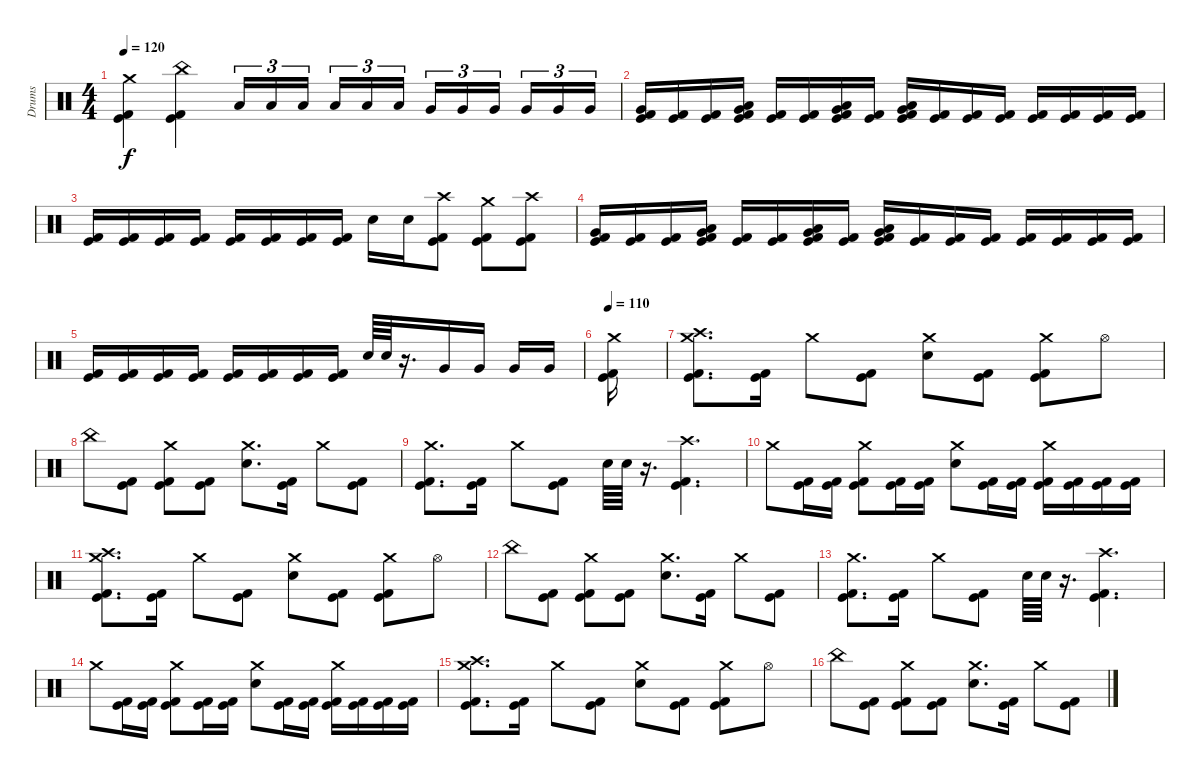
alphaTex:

\track ("Drums" "Drums") {instrument percussion}
\staff {score}
\articulation defaults
\ts (4 4)
\tempo 120
\clef neutral
\ks c
("Crash medium (hit)" "Kick (hit)" "Kick (hit) 2").4{dy f} ("China (hit)" "Kick (hit)" "Kick (hit) 2").4 "Low Tom (hit)".16{tu (3 2)} "Low Tom (hit)".16{tu (3 2)} "Low Tom (hit)".16{tu (3 2) beam splitsecondary} "Low Tom (hit)".16{tu (3 2)} "Low Tom (hit)".16{tu (3 2)} "Low Tom (hit)".16{tu (3 2)} "Very Low Tom (hit)".16{tu (3 2)} "Very Low Tom (hit)".16{tu (3 2)} "Very Low Tom (hit)".16{tu (3 2) beam splitsecondary} "Very Low Tom (hit)".16{tu (3 2)} "Very Low Tom (hit)".16{tu (3 2)} "Very Low Tom (hit)".16{tu (3 2)} |
("Very Low Tom (hit)" "Kick (hit)" "Kick (hit) 2").16 ("Kick (hit)" "Kick (hit) 2").16 ("Kick (hit)" "Kick (hit) 2").16 ("Low Tom (hit)" "Very Low Tom (hit)" "Kick (hit)" "Kick (hit) 2").16 ("Kick (hit)" "Kick (hit) 2").16 ("Kick (hit)" "Kick (hit) 2").16 ("Low Tom (hit)" "Very Low Tom (hit)" "Kick (hit)" "Kick (hit) 2").16 ("Kick (hit)" "Kick (hit) 2").16 ("Low Tom (hit)" "Very Low Tom (hit)" "Kick (hit)" "Kick (hit) 2").16 ("Kick (hit)" "Kick (hit) 2").16 ("Kick (hit)" "Kick (hit) 2").16 ("Kick (hit)" "Kick (hit) 2").16 ("Kick (hit)" "Kick (hit) 2").16 ("Kick (hit)" "Kick (hit) 2").16 ("Kick (hit)" "Kick (hit) 2").16 ("Kick (hit)" "Kick (hit) 2").16 |
("Kick (hit)" "Kick (hit) 2").16 ("Kick (hit)" "Kick (hit) 2").16 ("Kick (hit)" "Kick (hit) 2").16 ("Kick (hit)" "Kick (hit) 2").16 ("Kick (hit)" "Kick (hit) 2").16 ("Kick (hit)" "Kick (hit) 2").16 ("Kick (hit)" "Kick (hit) 2").16 ("Kick (hit)" "Kick (hit) 2").16 "Electric Snare (hit)".16 "Electric Snare (hit)".16 ("Crash high (hit)" "Kick (hit)" "Kick (hit) 2").8 ("Crash medium (hit)" "Kick (hit)" "Kick (hit) 2").8 ("Crash high (hit)" "Kick (hit)" "Kick (hit) 2").8 |
("Very Low Tom (hit)" "Kick (hit)" "Kick (hit) 2").16 ("Kick (hit)" "Kick (hit) 2").16 ("Kick (hit)" "Kick (hit) 2").16 ("Low Tom (hit)" "Very Low Tom (hit)" "Kick (hit)" "Kick (hit) 2").16 ("Kick (hit)" "Kick (hit) 2").16 ("Kick (hit)" "Kick (hit) 2").16 ("Low Tom (hit)" "Very Low Tom (hit)" "Kick (hit)" "Kick (hit) 2").16 ("Kick (hit)" "Kick (hit) 2").16 ("Low Tom (hit)" "Very Low Tom (hit)" "Kick (hit)" "Kick (hit) 2").16 ("Kick (hit)" "Kick (hit) 2").16 ("Kick (hit)" "Kick (hit) 2").16 ("Kick (hit)" "Kick (hit) 2").16 ("Kick (hit)" "Kick (hit) 2").16 ("Kick (hit)" "Kick (hit) 2").16 ("Kick (hit)" "Kick (hit) 2").16 ("Kick (hit)" "Kick (hit) 2").16 |
("Kick (hit)" "Kick (hit) 2").16 ("Kick (hit)" "Kick (hit) 2").16 ("Kick (hit)" "Kick (hit) 2").16 ("Kick (hit)" "Kick (hit) 2").16 ("Kick (hit)" "Kick (hit) 2").16 ("Kick (hit)" "Kick (hit) 2").16 ("Kick (hit)" "Kick (hit) 2").16 ("Kick (hit)" "Kick (hit) 2").16 "Electric Snare (hit)".64 "Electric Snare (hit)".64 r.16{d} "Very Low Tom (hit)".16 "Very Low Tom (hit)".16 "Very Low Tom (hit)".16 "Very Low Tom (hit)".16 |
\tempo 110
("Crash medium (hit)" "Kick (hit)" "Kick (hit) 2").16 |
("Crash high (hit)" "Crash medium (hit)" "Kick (hit)" "Kick (hit) 2").8{d} ("Kick (hit)" "Kick (hit) 2").16 "Crash medium (hit)".8 ("Kick (hit)" "Kick (hit) 2").8 ("Crash medium (hit)" "Electric Snare (hit)").8 ("Kick (hit)" "Kick (hit) 2").8 ("Crash medium (hit)" "Kick (hit)" "Kick (hit) 2").8 "Hi-Hat (open)".8 |
"China (hit)".8 ("Kick (hit)" "Kick (hit) 2").8 ("Crash medium (hit)" "Kick (hit)" "Kick (hit) 2").8 ("Kick (hit)" "Kick (hit) 2").8 ("Crash medium (hit)" "Electric Snare (hit)").8{d} ("Kick (hit)" "Kick (hit) 2").16 "Crash medium (hit)".8 ("Kick (hit)" "Kick (hit) 2").8 |
("Crash medium (hit)" "Kick (hit)" "Kick (hit) 2").8{d} ("Kick (hit)" "Kick (hit) 2").16 "Crash medium (hit)".8 ("Kick (hit)" "Kick (hit) 2").8 "Electric Snare (hit)".64 "Electric Snare (hit)".64 r.16{d} ("Crash high (hit)" "Kick (hit)" "Kick (hit) 2").4{d} |
"Crash medium (hit)".8 ("Kick (hit)" "Kick (hit) 2").16 ("Kick (hit)" "Kick (hit) 2").16 ("Crash medium (hit)" "Kick (hit)" "Kick (hit) 2").8 ("Kick (hit)" "Kick (hit) 2").16 ("Kick (hit)" "Kick (hit) 2").16 ("Crash medium (hit)" "Electric Snare (hit)").8 ("Kick (hit)" "Kick (hit) 2").16 ("Kick (hit)" "Kick (hit) 2").16 ("Crash medium (hit)" "Kick (hit)" "Kick (hit) 2").16 ("Kick (hit)" "Kick (hit) 2").16 ("Kick (hit)" "Kick (hit) 2").16 ("Kick (hit)" "Kick (hit) 2").16 |
("Crash high (hit)" "Crash medium (hit)" "Kick (hit)" "Kick (hit) 2").8{d} ("Kick (hit)" "Kick (hit) 2").16 "Crash medium (hit)".8 ("Kick (hit)" "Kick (hit) 2").8 ("Crash medium (hit)" "Electric Snare (hit)").8 ("Kick (hit)" "Kick (hit) 2").8 ("Crash medium (hit)" "Kick (hit)" "Kick (hit) 2").8 "Hi-Hat (open)".8 |
"China (hit)".8 ("Kick (hit)" "Kick (hit) 2").8 ("Crash medium (hit)" "Kick (hit)" "Kick (hit) 2").8 ("Kick (hit)" "Kick (hit) 2").8 ("Crash medium (hit)" "Electric Snare (hit)").8{d} ("Kick (hit)" "Kick (hit) 2").16 "Crash medium (hit)".8 ("Kick (hit)" "Kick (hit) 2").8 |
("Crash medium (hit)" "Kick (hit)" "Kick (hit) 2").8{d} ("Kick (hit)" "Kick (hit) 2").16 "Crash medium (hit)".8 ("Kick (hit)" "Kick (hit) 2").8 "Electric Snare (hit)".64 "Electric Snare (hit)".64 r.16{d} ("Crash high (hit)" "Kick (hit)" "Kick (hit) 2").4{d} |
"Crash medium (hit)".8 ("Kick (hit)" "Kick (hit) 2").16 ("Kick (hit)" "Kick (hit) 2").16 ("Crash medium (hit)" "Kick (hit)" "Kick (hit) 2").8 ("Kick (hit)" "Kick (hit) 2").16 ("Kick (hit)" "Kick (hit) 2").16 ("Crash medium (hit)" "Electric Snare (hit)").8 ("Kick (hit)" "Kick (hit) 2").16 ("Kick (hit)" "Kick (hit) 2").16 ("Crash medium (hit)" "Kick (hit)" "Kick (hit) 2").16 ("Kick (hit)" "Kick (hit) 2").16 ("Kick (hit)" "Kick (hit) 2").16 ("Kick (hit)" "Kick (hit) 2").16 |
("Crash high (hit)" "Crash medium (hit)" "Kick (hit)" "Kick (hit) 2").8{d} ("Kick (hit)" "Kick (hit) 2").16 "Crash medium (hit)".8 ("Kick (hit)" "Kick (hit) 2").8 ("Crash medium (hit)" "Electric Snare (hit)").8 ("Kick (hit)" "Kick (hit) 2").8 ("Crash medium (hit)" "Kick (hit)" "Kick (hit) 2").8 "Hi-Hat (open)".8 |
"China (hit)".8 ("Kick (hit)" "Kick (hit) 2").8 ("Crash medium (hit)" "Kick (hit)" "Kick (hit) 2").8 ("Kick (hit)" "Kick (hit) 2").8 ("Crash medium (hit)" "Electric Snare (hit)").8{d} ("Kick (hit)" "Kick (hit) 2").16 "Crash medium (hit)".8 ("Kick (hit)" "Kick (hit) 2").8
